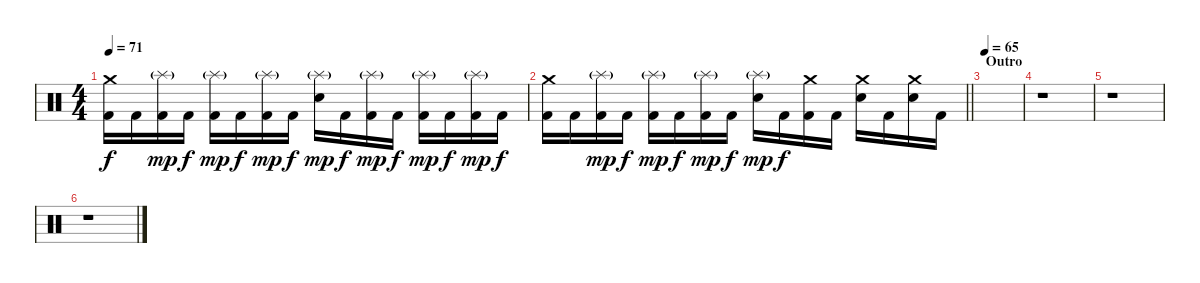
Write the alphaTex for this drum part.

\track "" {instrument percussion}
\staff {score}
\articulation defaults
\ts (4 4)
\tempo 71
\clef neutral
\ks c
("Crash medium (hit)" "Kick (hit) 2").16{dy f} "Kick (hit) 2".16 ("Splash (hit)"{g} "Kick (hit) 2").16{dy mp} "Kick (hit) 2".16{dy f} ("Splash (hit)"{g} "Kick (hit) 2").16{dy mp} "Kick (hit) 2".16{dy f} ("Splash (hit)"{g} "Kick (hit) 2").16{dy mp} "Kick (hit) 2".16{dy f} ("Splash (hit)"{g} "Snare (hit) 2").16{dy mp} "Kick (hit) 2".16{dy f} ("Splash (hit)"{g} "Kick (hit) 2").16{dy mp} "Kick (hit) 2".16{dy f} ("Splash (hit)"{g} "Kick (hit) 2").16{dy mp} "Kick (hit) 2".16{dy f} ("Splash (hit)"{g} "Kick (hit) 2").16{dy mp} "Kick (hit) 2".16{dy f} |
\barLineRight lightlight
("Crash medium (hit)" "Kick (hit) 2").16 "Kick (hit) 2".16 ("Splash (hit)"{g} "Kick (hit) 2").16{dy mp} "Kick (hit) 2".16{dy f} ("Splash (hit)"{g} "Kick (hit) 2").16{dy mp} "Kick (hit) 2".16{dy f} ("Splash (hit)"{g} "Kick (hit) 2").16{dy mp} "Kick (hit) 2".16{dy f} ("Splash (hit)"{g} "Snare (hit) 2").16{dy mp} "Kick (hit) 2".16{dy f} ("Crash medium (hit)" "Kick (hit) 2").16 "Kick (hit) 2".16 ("Crash medium (hit)" "Snare (hit) 2").16 "Kick (hit) 2".16 ("Crash medium (hit)" "Snare (hit) 2").16 "Kick (hit) 2".16 |
\section ("" "Outro")
\tempo 65
|
r.1 |
r.1 |
r.1
